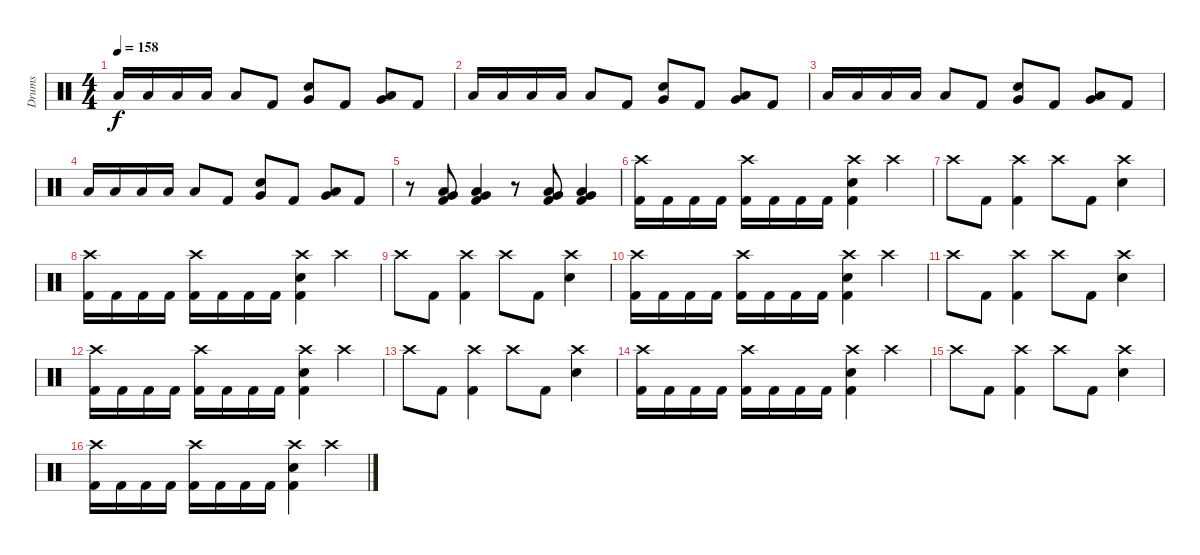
\track ("Drums" "Drums") {instrument percussion}
\staff {score}
\articulation defaults
\ts (4 4)
\tempo 158
\clef neutral
\ks c "Low Floor Tom (hit)".16{dy f} "Low Floor Tom (hit)".16 "Low Floor Tom (hit)".16 "Low Floor Tom (hit)".16 "Low Floor Tom (hit)".8 "Kick (hit) 2".8
("Electric Snare (hit)" "Very Low Tom (hit)").8 "Kick (hit) 2".8 ("Very Low Tom (hit)" "Low Floor Tom (hit)").8 "Kick (hit) 2".8 |
"Low Floor Tom (hit)".16 "Low Floor Tom (hit)".16 "Low Floor Tom (hit)".16 "Low Floor Tom (hit)".16 "Low Floor Tom (hit)".8 "Kick (hit) 2".8 ("Electric Snare (hit)" "Very Low Tom (hit)").8 "Kick (hit) 2".8 ("Very Low Tom (hit)" "Low Floor Tom (hit)").8 "Kick (hit) 2".8 |
"Low Floor Tom (hit)".16 "Low Floor Tom (hit)".16 "Low Floor Tom (hit)".16 "Low Floor Tom (hit)".16 "Low Floor Tom (hit)".8 "Kick (hit) 2".8 ("Electric Snare (hit)" "Very Low Tom (hit)").8 "Kick (hit) 2".8 ("Very Low Tom (hit)" "Low Floor Tom (hit)").8 "Kick (hit) 2".8 |
"Low Floor Tom (hit)".16 "Low Floor Tom (hit)".16 "Low Floor Tom (hit)".16 "Low Floor Tom (hit)".16 "Low Floor Tom (hit)".8 "Kick (hit) 2".8 ("Electric Snare (hit)" "Very Low Tom (hit)").8 "Kick (hit) 2".8 ("Very Low Tom (hit)" "Low Floor Tom (hit)").8 "Kick (hit) 2".8 |
r.8 ("Very Low Tom (hit)" "Low Floor Tom (hit)" "Kick (hit) 2").8 ("Very Low Tom (hit)" "Low Floor Tom (hit)" "Kick (hit) 2").4 r.8 ("Very Low Tom (hit)" "Low Floor Tom (hit)" "Kick (hit) 2").8 ("Very Low Tom (hit)" "Low Floor Tom (hit)" "Kick (hit) 2").4 |
("Crash high (hit)" "Kick (hit) 2").16 "Kick (hit) 2".16 "Kick (hit) 2".16 "Kick (hit) 2".16 ("Crash high (hit)" "Kick (hit) 2").16 "Kick (hit) 2".16 "Kick (hit) 2".16 "Kick (hit) 2".16 ("Crash high (hit)" "Electric Snare (hit)" "Kick (hit) 2").4 "Crash high (hit)".4 |
"Crash high (hit)".8 "Kick (hit) 2".8 ("Crash high (hit)" "Kick (hit) 2").4 "Crash high (hit)".8 "Kick (hit) 2".8 ("Crash high (hit)" "Electric Snare (hit)").4 |
("Crash high (hit)" "Kick (hit) 2").16 "Kick (hit) 2".16 "Kick (hit) 2".16 "Kick (hit) 2".16 ("Crash high (hit)" "Kick (hit) 2").16 "Kick (hit) 2".16 "Kick (hit) 2".16 "Kick (hit) 2".16 ("Crash high (hit)" "Electric Snare (hit)" "Kick (hit) 2").4 "Crash high (hit)".4 |
"Crash high (hit)".8 "Kick (hit) 2".8 ("Crash high (hit)" "Kick (hit) 2").4 "Crash high (hit)".8 "Kick (hit) 2".8 ("Crash high (hit)" "Electric Snare (hit)").4 |
("Crash high (hit)" "Kick (hit) 2").16 "Kick (hit) 2".16 "Kick (hit) 2".16 "Kick (hit) 2".16 ("Crash high (hit)" "Kick (hit) 2").16 "Kick (hit) 2".16 "Kick (hit) 2".16 "Kick (hit) 2".16 ("Crash high (hit)" "Electric Snare (hit)" "Kick (hit) 2").4 "Crash high (hit)".4 |
"Crash high (hit)".8 "Kick (hit) 2".8 ("Crash high (hit)" "Kick (hit) 2").4 "Crash high (hit)".8 "Kick (hit) 2".8 ("Crash high (hit)" "Electric Snare (hit)").4 |
("Crash high (hit)" "Kick (hit) 2").16 "Kick (hit) 2".16 "Kick (hit) 2".16 "Kick (hit) 2".16 ("Crash high (hit)" "Kick (hit) 2").16 "Kick (hit) 2".16 "Kick (hit) 2".16 "Kick (hit) 2".16 ("Crash high (hit)" "Electric Snare (hit)" "Kick (hit) 2").4 "Crash high (hit)".4 |
"Crash high (hit)".8 "Kick (hit) 2".8 ("Crash high (hit)" "Kick (hit) 2").4 "Crash high (hit)".8 "Kick (hit) 2".8 ("Crash high (hit)" "Electric Snare (hit)").4 |
("Crash high (hit)" "Kick (hit) 2").16 "Kick (hit) 2".16 "Kick (hit) 2".16 "Kick (hit) 2".16 ("Crash high (hit)" "Kick (hit) 2").16 "Kick (hit) 2".16 "Kick (hit) 2".16 "Kick (hit) 2".16 ("Crash high (hit)" "Electric Snare (hit)" "Kick (hit) 2").4 "Crash high (hit)".4 |
"Crash high (hit)".8 "Kick (hit) 2".8 ("Crash high (hit)" "Kick (hit) 2").4 "Crash high (hit)".8 "Kick (hit) 2".8 ("Crash high (hit)" "Electric Snare (hit)").4 |
("Crash high (hit)" "Kick (hit) 2").16 "Kick (hit) 2".16 "Kick (hit) 2".16 "Kick (hit) 2".16 ("Crash high (hit)" "Kick (hit) 2").16 "Kick (hit) 2".16 "Kick (hit) 2".16 "Kick (hit) 2".16 ("Crash high (hit)" "Electric Snare (hit)" "Kick (hit) 2").4 "Crash high (hit)".4
